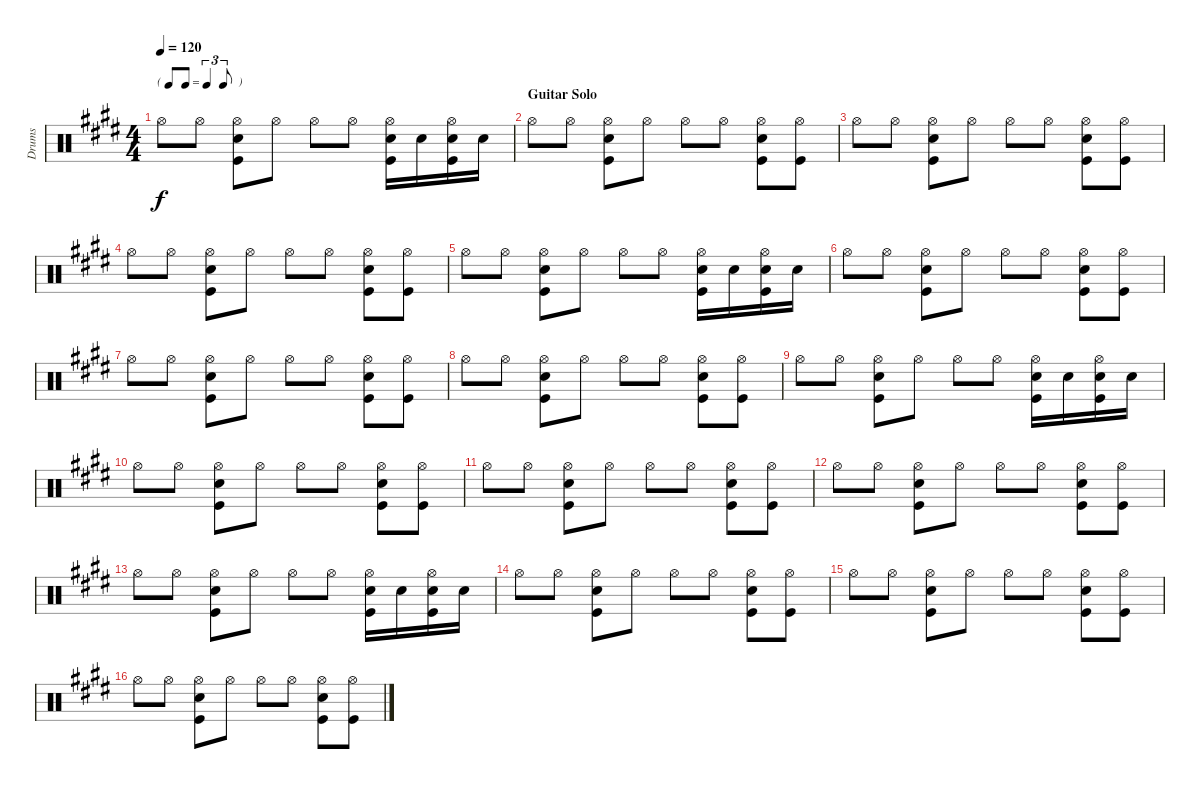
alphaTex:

\track ("Drums" "Drums") {instrument percussion}
\staff {score}
\articulation defaults
\ts (4 4)
\tf triplet8th
\tempo 120
\clef neutral
\ks e "Hi-Hat (open)".8{dy f} "Hi-Hat (open)".8
("Kick (hit)" "Electric Snare (hit)" "Hi-Hat (open)").8 "Hi-Hat (open)".8 "Hi-Hat (open)".8 "Hi-Hat (open)".8 ("Kick (hit)" "Electric Snare (hit)" "Hi-Hat (open)").16 "Electric Snare (hit)".16 ("Electric Snare (hit)" "Kick (hit)" "Hi-Hat (open)").16 "Electric Snare (hit)".16 |
\section ("" "Guitar Solo")
"Hi-Hat (open)".8 "Hi-Hat (open)".8 ("Kick (hit)" "Electric Snare (hit)" "Hi-Hat (open)").8 "Hi-Hat (open)".8 "Hi-Hat (open)".8 "Hi-Hat (open)".8 ("Kick (hit)" "Electric Snare (hit)" "Hi-Hat (open)").8 ("Kick (hit)" "Hi-Hat (open)").8 |
"Hi-Hat (open)".8 "Hi-Hat (open)".8 ("Kick (hit)" "Electric Snare (hit)" "Hi-Hat (open)").8 "Hi-Hat (open)".8 "Hi-Hat (open)".8 "Hi-Hat (open)".8 ("Kick (hit)" "Electric Snare (hit)" "Hi-Hat (open)").8 ("Kick (hit)" "Hi-Hat (open)").8 |
"Hi-Hat (open)".8 "Hi-Hat (open)".8 ("Kick (hit)" "Electric Snare (hit)" "Hi-Hat (open)").8 "Hi-Hat (open)".8 "Hi-Hat (open)".8 "Hi-Hat (open)".8 ("Kick (hit)" "Electric Snare (hit)" "Hi-Hat (open)").8 ("Kick (hit)" "Hi-Hat (open)").8 |
"Hi-Hat (open)".8 "Hi-Hat (open)".8 ("Kick (hit)" "Electric Snare (hit)" "Hi-Hat (open)").8 "Hi-Hat (open)".8 "Hi-Hat (open)".8 "Hi-Hat (open)".8 ("Kick (hit)" "Electric Snare (hit)" "Hi-Hat (open)").16 "Electric Snare (hit)".16 ("Electric Snare (hit)" "Kick (hit)" "Hi-Hat (open)").16 "Electric Snare (hit)".16 |
"Hi-Hat (open)".8 "Hi-Hat (open)".8 ("Kick (hit)" "Electric Snare (hit)" "Hi-Hat (open)").8 "Hi-Hat (open)".8 "Hi-Hat (open)".8 "Hi-Hat (open)".8 ("Kick (hit)" "Electric Snare (hit)" "Hi-Hat (open)").8 ("Kick (hit)" "Hi-Hat (open)").8 |
"Hi-Hat (open)".8 "Hi-Hat (open)".8 ("Kick (hit)" "Electric Snare (hit)" "Hi-Hat (open)").8 "Hi-Hat (open)".8 "Hi-Hat (open)".8 "Hi-Hat (open)".8 ("Kick (hit)" "Electric Snare (hit)" "Hi-Hat (open)").8 ("Kick (hit)" "Hi-Hat (open)").8 |
"Hi-Hat (open)".8 "Hi-Hat (open)".8 ("Kick (hit)" "Electric Snare (hit)" "Hi-Hat (open)").8 "Hi-Hat (open)".8 "Hi-Hat (open)".8 "Hi-Hat (open)".8 ("Kick (hit)" "Electric Snare (hit)" "Hi-Hat (open)").8 ("Kick (hit)" "Hi-Hat (open)").8 |
"Hi-Hat (open)".8 "Hi-Hat (open)".8 ("Kick (hit)" "Electric Snare (hit)" "Hi-Hat (open)").8 "Hi-Hat (open)".8 "Hi-Hat (open)".8 "Hi-Hat (open)".8 ("Kick (hit)" "Electric Snare (hit)" "Hi-Hat (open)").16 "Electric Snare (hit)".16 ("Electric Snare (hit)" "Kick (hit)" "Hi-Hat (open)").16 "Electric Snare (hit)".16 |
"Hi-Hat (open)".8 "Hi-Hat (open)".8 ("Kick (hit)" "Electric Snare (hit)" "Hi-Hat (open)").8 "Hi-Hat (open)".8 "Hi-Hat (open)".8 "Hi-Hat (open)".8 ("Kick (hit)" "Electric Snare (hit)" "Hi-Hat (open)").8 ("Kick (hit)" "Hi-Hat (open)").8 |
"Hi-Hat (open)".8 "Hi-Hat (open)".8 ("Kick (hit)" "Electric Snare (hit)" "Hi-Hat (open)").8 "Hi-Hat (open)".8 "Hi-Hat (open)".8 "Hi-Hat (open)".8 ("Kick (hit)" "Electric Snare (hit)" "Hi-Hat (open)").8 ("Kick (hit)" "Hi-Hat (open)").8 |
"Hi-Hat (open)".8 "Hi-Hat (open)".8 ("Kick (hit)" "Electric Snare (hit)" "Hi-Hat (open)").8 "Hi-Hat (open)".8 "Hi-Hat (open)".8 "Hi-Hat (open)".8 ("Kick (hit)" "Electric Snare (hit)" "Hi-Hat (open)").8 ("Kick (hit)" "Hi-Hat (open)").8 |
"Hi-Hat (open)".8 "Hi-Hat (open)".8 ("Kick (hit)" "Electric Snare (hit)" "Hi-Hat (open)").8 "Hi-Hat (open)".8 "Hi-Hat (open)".8 "Hi-Hat (open)".8 ("Kick (hit)" "Electric Snare (hit)" "Hi-Hat (open)").16 "Electric Snare (hit)".16 ("Electric Snare (hit)" "Kick (hit)" "Hi-Hat (open)").16 "Electric Snare (hit)".16 |
"Hi-Hat (open)".8 "Hi-Hat (open)".8 ("Kick (hit)" "Electric Snare (hit)" "Hi-Hat (open)").8 "Hi-Hat (open)".8 "Hi-Hat (open)".8 "Hi-Hat (open)".8 ("Kick (hit)" "Electric Snare (hit)" "Hi-Hat (open)").8 ("Kick (hit)" "Hi-Hat (open)").8 |
"Hi-Hat (open)".8 "Hi-Hat (open)".8 ("Kick (hit)" "Electric Snare (hit)" "Hi-Hat (open)").8 "Hi-Hat (open)".8 "Hi-Hat (open)".8 "Hi-Hat (open)".8 ("Kick (hit)" "Electric Snare (hit)" "Hi-Hat (open)").8 ("Kick (hit)" "Hi-Hat (open)").8 |
"Hi-Hat (open)".8 "Hi-Hat (open)".8 ("Kick (hit)" "Electric Snare (hit)" "Hi-Hat (open)").8 "Hi-Hat (open)".8 "Hi-Hat (open)".8 "Hi-Hat (open)".8 ("Kick (hit)" "Electric Snare (hit)" "Hi-Hat (open)").8 ("Kick (hit)" "Hi-Hat (open)").8
